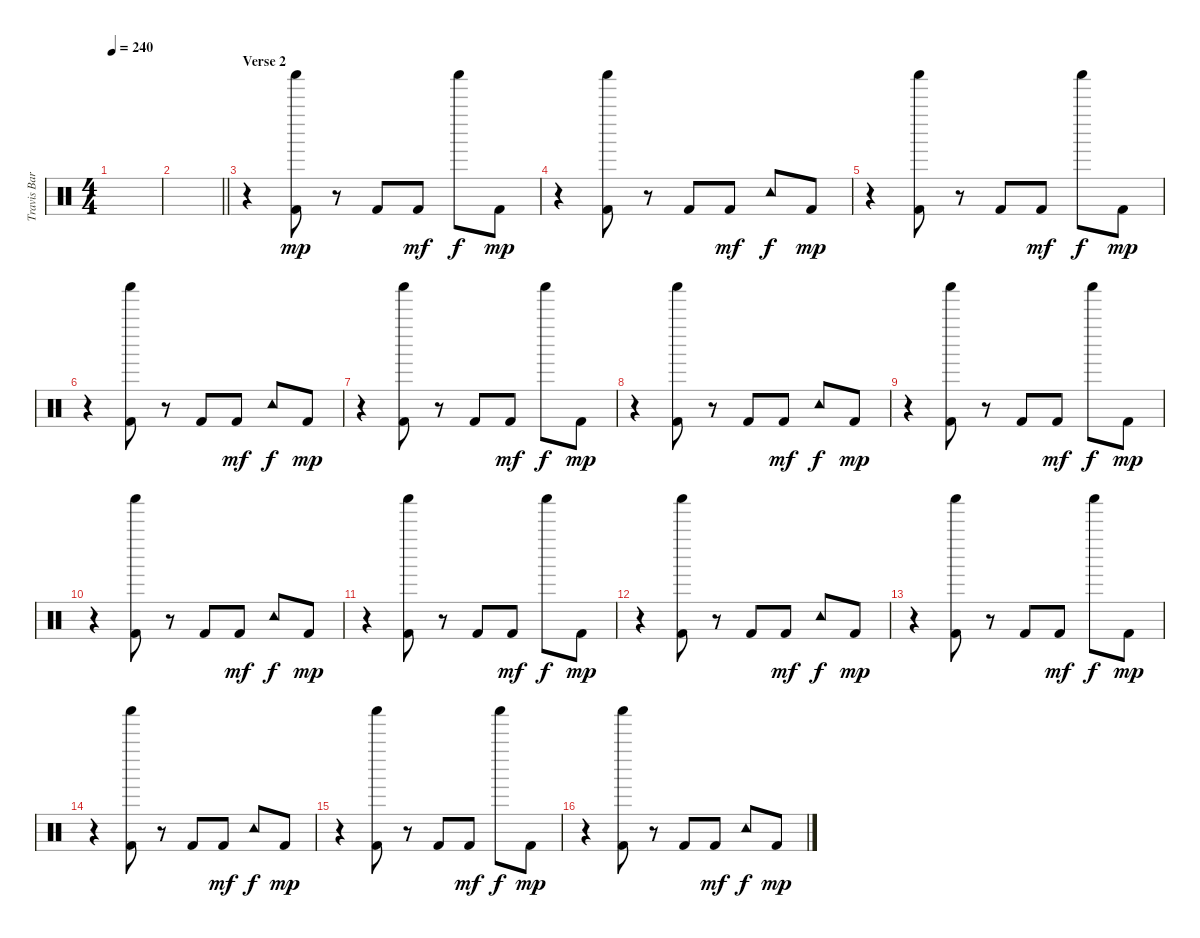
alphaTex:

\track ("Travis Barker - Drums" "Travis Bar") {instrument percussion}
\staff {score}
\articulation defaults
\ts (4 4)
\tempo 240
\clef neutral
\ks c
|
\barLineRight lightlight
|
\section ("" "Verse 2")
r.4 ("Shaker (hit)" "Kick (hit) 2").8{dy mp} r.8 "Kick (hit) 2".8 "Kick (hit) 2".8{dy mf} "Shaker (hit)".8{dy f} "Kick (hit) 2".8{dy mp} |
r.4 ("Shaker (hit)" "Kick (hit) 2").8 r.8 "Kick (hit) 2".8 "Kick (hit) 2".8{dy mf} "Tambourine (hit)".8{dy f} "Kick (hit) 2".8{dy mp} |
r.4 ("Shaker (hit)" "Kick (hit) 2").8 r.8 "Kick (hit) 2".8 "Kick (hit) 2".8{dy mf} "Shaker (hit)".8{dy f} "Kick (hit) 2".8{dy mp} |
r.4 ("Shaker (hit)" "Kick (hit) 2").8 r.8 "Kick (hit) 2".8 "Kick (hit) 2".8{dy mf} "Tambourine (hit)".8{dy f} "Kick (hit) 2".8{dy mp} |
r.4 ("Shaker (hit)" "Kick (hit) 2").8 r.8 "Kick (hit) 2".8 "Kick (hit) 2".8{dy mf} "Shaker (hit)".8{dy f} "Kick (hit) 2".8{dy mp} |
r.4 ("Shaker (hit)" "Kick (hit) 2").8 r.8 "Kick (hit) 2".8 "Kick (hit) 2".8{dy mf} "Tambourine (hit)".8{dy f} "Kick (hit) 2".8{dy mp} |
r.4 ("Shaker (hit)" "Kick (hit) 2").8 r.8 "Kick (hit) 2".8 "Kick (hit) 2".8{dy mf} "Shaker (hit)".8{dy f} "Kick (hit) 2".8{dy mp} |
r.4 ("Shaker (hit)" "Kick (hit) 2").8 r.8 "Kick (hit) 2".8 "Kick (hit) 2".8{dy mf} "Tambourine (hit)".8{dy f} "Kick (hit) 2".8{dy mp} |
r.4 ("Shaker (hit)" "Kick (hit) 2").8 r.8 "Kick (hit) 2".8 "Kick (hit) 2".8{dy mf} "Shaker (hit)".8{dy f} "Kick (hit) 2".8{dy mp} |
r.4 ("Shaker (hit)" "Kick (hit) 2").8 r.8 "Kick (hit) 2".8 "Kick (hit) 2".8{dy mf} "Tambourine (hit)".8{dy f} "Kick (hit) 2".8{dy mp} |
r.4 ("Shaker (hit)" "Kick (hit) 2").8 r.8 "Kick (hit) 2".8 "Kick (hit) 2".8{dy mf} "Shaker (hit)".8{dy f} "Kick (hit) 2".8{dy mp} |
r.4 ("Shaker (hit)" "Kick (hit) 2").8 r.8 "Kick (hit) 2".8 "Kick (hit) 2".8{dy mf} "Tambourine (hit)".8{dy f} "Kick (hit) 2".8{dy mp} |
r.4 ("Shaker (hit)" "Kick (hit) 2").8 r.8 "Kick (hit) 2".8 "Kick (hit) 2".8{dy mf} "Shaker (hit)".8{dy f} "Kick (hit) 2".8{dy mp} |
r.4 ("Shaker (hit)" "Kick (hit) 2").8 r.8 "Kick (hit) 2".8 "Kick (hit) 2".8{dy mf} "Tambourine (hit)".8{dy f} "Kick (hit) 2".8{dy mp}
